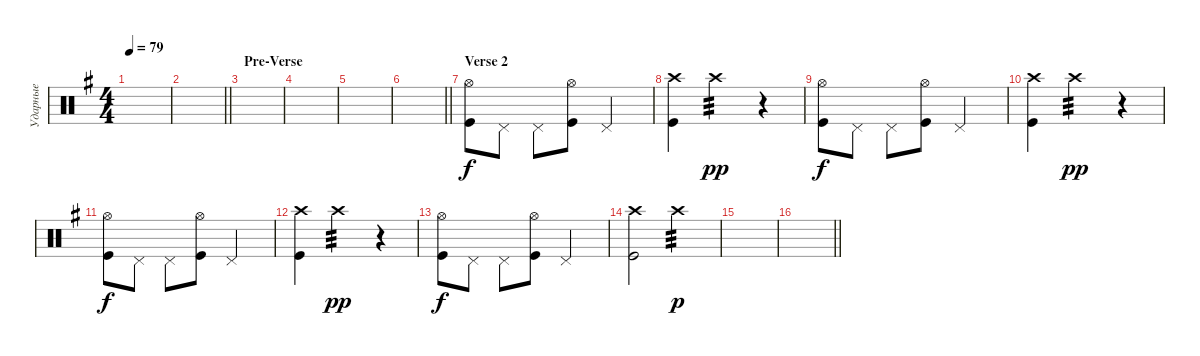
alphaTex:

\track ("Ударные" "Ударные") {instrument percussion}
\staff {score}
\articulation defaults
\ts (4 4)
\tempo 79
\clef neutral
\ks eminor
|
\barLineRight lightlight
|
\section ("" "Pre-Verse")
|
|
|
\barLineRight lightlight
|
\section ("" "Verse 2")
("Kick (hit)" "Hi-Hat (open)").8 "Pedal Hi-Hat (hit)".8 "Pedal Hi-Hat (hit)".8 ("Kick (hit)" "Hi-Hat (open)").8 "Pedal Hi-Hat (hit)".2 |
("Kick (hit)" "Crash high (hit)").4 "Crash high (hit)".2{tp 3 dy pp} r.4 |
("Kick (hit)" "Hi-Hat (open)").8{dy f} "Pedal Hi-Hat (hit)".8 "Pedal Hi-Hat (hit)".8 ("Kick (hit)" "Hi-Hat (open)").8 "Pedal Hi-Hat (hit)".2 |
("Kick (hit)" "Crash high (hit)").4 "Crash high (hit)".2{tp 3 dy pp} r.4 |
("Kick (hit)" "Hi-Hat (open)").8{dy f} "Pedal Hi-Hat (hit)".8 "Pedal Hi-Hat (hit)".8 ("Kick (hit)" "Hi-Hat (open)").8 "Pedal Hi-Hat (hit)".2 |
("Kick (hit)" "Crash high (hit)").4 "Crash high (hit)".2{tp 3 dy pp} r.4 |
("Kick (hit)" "Hi-Hat (open)").8{dy f} "Pedal Hi-Hat (hit)".8 "Pedal Hi-Hat (hit)".8 ("Kick (hit)" "Hi-Hat (open)").8 "Pedal Hi-Hat (hit)".2 |
("Kick (hit)" "Crash high (hit)").2 "Crash high (hit)".2{tp 3 dy p} |
|
\barLineRight lightlight
